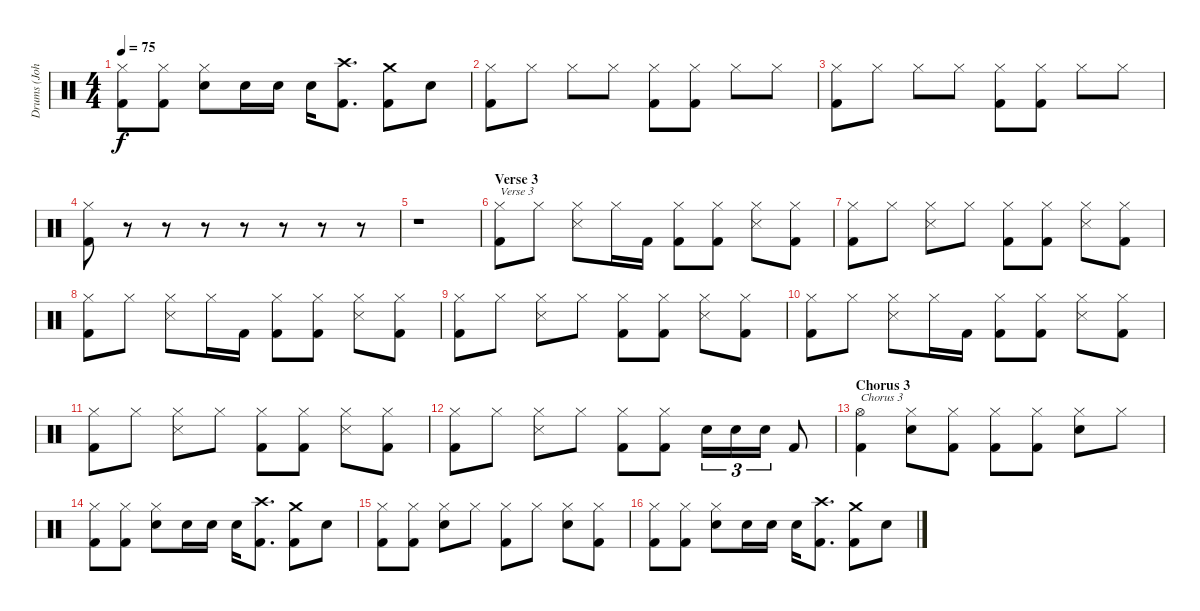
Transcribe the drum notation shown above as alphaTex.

\track ("Drums (John Bonham" "Drums (Joh") {instrument percussion}
\staff {score}
\articulation defaults
\ts (4 4)
\tempo 75
\clef neutral
\ks c
("Hi-Hat (closed)" "Kick (hit) 2").8{dy f} ("Hi-Hat (closed)" "Kick (hit) 2").8 ("Hi-Hat (closed)" "Snare (hit) 2").8 "Snare (hit) 2".16 "Snare (hit) 2".16 "Snare (hit) 2".16 ("Crash high (hit)" "Kick (hit) 2").8{d} ("Crash medium (hit)" "Kick (hit) 2").8 "Snare (hit) 2".8 |
("Hi-Hat (closed)" "Kick (hit) 2").8 "Hi-Hat (closed)".8 "Hi-Hat (closed)".8 "Hi-Hat (closed)".8 ("Hi-Hat (closed)" "Kick (hit) 2").8 ("Hi-Hat (closed)" "Kick (hit) 2").8 "Hi-Hat (closed)".8 "Hi-Hat (closed)".8 |
("Hi-Hat (closed)" "Kick (hit) 2").8 "Hi-Hat (closed)".8 "Hi-Hat (closed)".8 "Hi-Hat (closed)".8 ("Hi-Hat (closed)" "Kick (hit) 2").8 ("Hi-Hat (closed)" "Kick (hit) 2").8 "Hi-Hat (closed)".8 "Hi-Hat (closed)".8 |
("Hi-Hat (closed)" "Kick (hit) 2").8 r.8 r.8 r.8 r.8 r.8 r.8 r.8 |
r.1 |
\section ("" "Verse 3")
("Hi-Hat (closed)" "Kick (hit) 2").8{txt "Verse 3"} "Hi-Hat (closed)".8 ("Hi-Hat (closed)" "Snare (side stick) 3").8 "Hi-Hat (closed)".16 "Kick (hit) 2".16 ("Hi-Hat (closed)" "Kick (hit) 2").8 ("Hi-Hat (closed)" "Kick (hit) 2").8 ("Hi-Hat (closed)" "Snare (side stick) 3").8 ("Hi-Hat (closed)" "Kick (hit) 2").8 |
("Hi-Hat (closed)" "Kick (hit) 2").8 "Hi-Hat (closed)".8 ("Hi-Hat (closed)" "Snare (side stick) 3").8 "Hi-Hat (closed)".8 ("Hi-Hat (closed)" "Kick (hit) 2").8 ("Hi-Hat (closed)" "Kick (hit) 2").8 ("Hi-Hat (closed)" "Snare (side stick) 3").8 ("Hi-Hat (closed)" "Kick (hit) 2").8 |
("Hi-Hat (closed)" "Kick (hit) 2").8 "Hi-Hat (closed)".8 ("Hi-Hat (closed)" "Snare (side stick) 3").8 "Hi-Hat (closed)".16 "Kick (hit) 2".16 ("Hi-Hat (closed)" "Kick (hit) 2").8 ("Hi-Hat (closed)" "Kick (hit) 2").8 ("Hi-Hat (closed)" "Snare (side stick) 3").8 ("Hi-Hat (closed)" "Kick (hit) 2").8 |
("Hi-Hat (closed)" "Kick (hit) 2").8 "Hi-Hat (closed)".8 ("Hi-Hat (closed)" "Snare (side stick) 3").8 "Hi-Hat (closed)".8 ("Hi-Hat (closed)" "Kick (hit) 2").8 ("Hi-Hat (closed)" "Kick (hit) 2").8 ("Hi-Hat (closed)" "Snare (side stick) 3").8 ("Hi-Hat (closed)" "Kick (hit) 2").8 |
("Hi-Hat (closed)" "Kick (hit) 2").8 "Hi-Hat (closed)".8 ("Hi-Hat (closed)" "Snare (side stick) 3").8 "Hi-Hat (closed)".16 "Kick (hit) 2".16 ("Hi-Hat (closed)" "Kick (hit) 2").8 ("Hi-Hat (closed)" "Kick (hit) 2").8 ("Hi-Hat (closed)" "Snare (side stick) 3").8 ("Hi-Hat (closed)" "Kick (hit) 2").8 |
("Hi-Hat (closed)" "Kick (hit) 2").8 "Hi-Hat (closed)".8 ("Hi-Hat (closed)" "Snare (side stick) 3").8 "Hi-Hat (closed)".8 ("Hi-Hat (closed)" "Kick (hit) 2").8 ("Hi-Hat (closed)" "Kick (hit) 2").8 ("Hi-Hat (closed)" "Snare (side stick) 3").8 ("Hi-Hat (closed)" "Kick (hit) 2").8 |
("Hi-Hat (closed)" "Kick (hit) 2").8 "Hi-Hat (closed)".8 ("Hi-Hat (closed)" "Snare (side stick) 3").8 "Hi-Hat (closed)".8 ("Hi-Hat (closed)" "Kick (hit) 2").8 ("Hi-Hat (closed)" "Kick (hit) 2").8 "Snare (hit) 2".16{tu (3 2)} "Snare (hit) 2".16{tu (3 2)} "Snare (hit) 2".16{tu (3 2)} "Kick (hit) 2".8 |
\section ("" "Chorus 3")
("Hi-Hat (open)" "Kick (hit) 2").4{txt "Chorus 3"} ("Hi-Hat (closed)" "Snare (hit) 2").8 ("Hi-Hat (closed)" "Kick (hit) 2").8 ("Hi-Hat (closed)" "Kick (hit) 2").8 ("Hi-Hat (closed)" "Kick (hit) 2").8 ("Hi-Hat (closed)" "Snare (hit) 2").8 "Hi-Hat (closed)".8 |
("Hi-Hat (closed)" "Kick (hit) 2").8 ("Hi-Hat (closed)" "Kick (hit) 2").8 ("Hi-Hat (closed)" "Snare (hit) 2").8 "Snare (hit) 2".16 "Snare (hit) 2".16 "Snare (hit) 2".16 ("Crash high (hit)" "Kick (hit) 2").8{d} ("Crash medium (hit)" "Kick (hit) 2").8 "Snare (hit) 2".8 |
("Hi-Hat (closed)" "Kick (hit) 2").8 ("Hi-Hat (closed)" "Kick (hit) 2").8 ("Hi-Hat (closed)" "Snare (hit) 2").8 "Hi-Hat (closed)".8 ("Hi-Hat (closed)" "Kick (hit) 2").8 "Hi-Hat (closed)".8 ("Hi-Hat (closed)" "Snare (hit) 2").8 ("Hi-Hat (closed)" "Kick (hit) 2").8 |
("Hi-Hat (closed)" "Kick (hit) 2").8 ("Hi-Hat (closed)" "Kick (hit) 2").8 ("Hi-Hat (closed)" "Snare (hit) 2").8 "Snare (hit) 2".16 "Snare (hit) 2".16 "Snare (hit) 2".16 ("Crash high (hit)" "Kick (hit) 2").8{d} ("Crash medium (hit)" "Kick (hit) 2").8 "Snare (hit) 2".8
